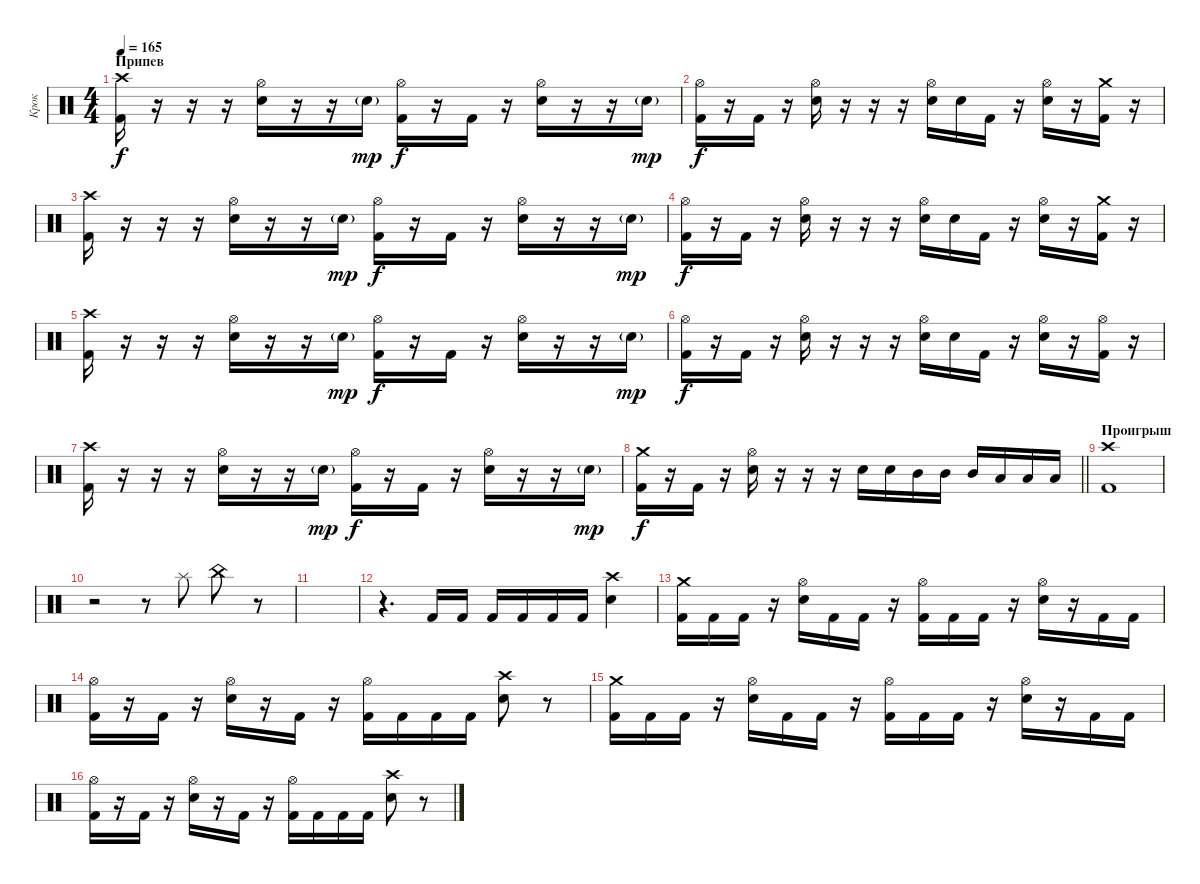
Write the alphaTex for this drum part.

\track ("Крок" "Крок") {instrument percussion}
\staff {score}
\articulation defaults
\ts (4 4)
\section ("" "Припев")
\tempo 165
\clef neutral
\ks c
("Kick (hit) 2" "Crash high (hit)").16{dy f} r.16 r.16 r.16 ("Electric Snare (hit)" "Hi-Hat (open)").16 r.16 r.16 "Electric Snare (hit)"{g}.16{dy mp} ("Kick (hit) 2" "Hi-Hat (open)").16{dy f} r.16 "Kick (hit) 2".16 r.16 ("Electric Snare (hit)" "Hi-Hat (open)").16 r.16 r.16 "Electric Snare (hit)"{g}.16{dy mp} |
("Kick (hit) 2" "Hi-Hat (open)").16{dy f} r.16 "Kick (hit) 2".16 r.16 ("Electric Snare (hit)" "Hi-Hat (open)").16 r.16 r.16 r.16 ("Electric Snare (hit)" "Hi-Hat (open)").16 "Electric Snare (hit)".16 "Kick (hit) 2".16 r.16 ("Electric Snare (hit)" "Hi-Hat (open)").16 r.16 ("Kick (hit) 2" "Crash medium (hit)").16 r.16 |
("Kick (hit) 2" "Crash high (hit)").16 r.16 r.16 r.16 ("Electric Snare (hit)" "Hi-Hat (open)").16 r.16 r.16 "Electric Snare (hit)"{g}.16{dy mp} ("Kick (hit) 2" "Hi-Hat (open)").16{dy f} r.16 "Kick (hit) 2".16 r.16 ("Electric Snare (hit)" "Hi-Hat (open)").16 r.16 r.16 "Electric Snare (hit)"{g}.16{dy mp} |
("Kick (hit) 2" "Hi-Hat (open)").16{dy f} r.16 "Kick (hit) 2".16 r.16 ("Electric Snare (hit)" "Hi-Hat (open)").16 r.16 r.16 r.16 ("Electric Snare (hit)" "Hi-Hat (open)").16 "Electric Snare (hit)".16 "Kick (hit) 2".16 r.16 ("Electric Snare (hit)" "Hi-Hat (open)").16 r.16 ("Kick (hit) 2" "Crash medium (hit)").16 r.16 |
("Kick (hit) 2" "Crash high (hit)").16 r.16 r.16 r.16 ("Electric Snare (hit)" "Hi-Hat (open)").16 r.16 r.16 "Electric Snare (hit)"{g}.16{dy mp} ("Kick (hit) 2" "Hi-Hat (open)").16{dy f} r.16 "Kick (hit) 2".16 r.16 ("Electric Snare (hit)" "Hi-Hat (open)").16 r.16 r.16 "Electric Snare (hit)"{g}.16{dy mp} |
("Kick (hit) 2" "Hi-Hat (open)").16{dy f} r.16 "Kick (hit) 2".16 r.16 ("Electric Snare (hit)" "Hi-Hat (open)").16 r.16 r.16 r.16 ("Electric Snare (hit)" "Hi-Hat (open)").16 "Electric Snare (hit)".16 "Kick (hit) 2".16 r.16 ("Electric Snare (hit)" "Hi-Hat (open)").16 r.16 ("Kick (hit) 2" "Hi-Hat (open)").16 r.16 |
("Kick (hit) 2" "Crash high (hit)").16 r.16 r.16 r.16 ("Electric Snare (hit)" "Hi-Hat (open)").16 r.16 r.16 "Electric Snare (hit)"{g}.16{dy mp} ("Kick (hit) 2" "Hi-Hat (open)").16{dy f} r.16 "Kick (hit) 2".16 r.16 ("Electric Snare (hit)" "Hi-Hat (open)").16 r.16 r.16 "Electric Snare (hit)"{g}.16{dy mp} |
\barLineRight lightlight
("Kick (hit) 2" "Crash medium (hit)").16{dy f} r.16 "Kick (hit) 2".16 r.16 ("Electric Snare (hit)" "Hi-Hat (open)").16 r.16 r.16 r.16 "Electric Snare (hit)".16 "Electric Snare (hit)".16 "Mid Tom (hit)".16 "Mid Tom (hit)".16 "Mid Tom (hit)".16 "Low Tom (hit)".16 "Low Tom (hit)".16 "Low Tom (hit)".16 |
\section ("" "Проигрыш")
("Kick (hit) 2" "Crash high (hit)").1 |
r.2 r.8 "Splash (hit)".8 "China (hit)".8 r.8 |
|
r.4{d} "Kick (hit) 2".16 "Kick (hit) 2".16 "Kick (hit) 2".16 "Kick (hit) 2".16 "Kick (hit) 2".16 "Kick (hit) 2".16 ("Crash high (hit)" "Electric Snare (hit)").4 |
("Kick (hit) 2" "Crash medium (hit)").16 "Kick (hit) 2".16 "Kick (hit) 2".16 r.16 ("Electric Snare (hit)" "Hi-Hat (open)").16 "Kick (hit) 2".16 "Kick (hit) 2".16 r.16 ("Kick (hit) 2" "Hi-Hat (open)").16 "Kick (hit) 2".16 "Kick (hit) 2".16 r.16 ("Electric Snare (hit)" "Hi-Hat (open)").16 r.16 "Kick (hit) 2".16 "Kick (hit) 2".16 |
("Kick (hit) 2" "Hi-Hat (open)").16 r.16 "Kick (hit) 2".16 r.16 ("Electric Snare (hit)" "Hi-Hat (open)").16 r.16 "Kick (hit) 2".16 r.16 ("Kick (hit) 2" "Hi-Hat (open)").16 "Kick (hit) 2".16 "Kick (hit) 2".16 "Kick (hit) 2".16 ("Electric Snare (hit)" "Crash high (hit)").8 r.8 |
("Kick (hit) 2" "Crash medium (hit)").16 "Kick (hit) 2".16 "Kick (hit) 2".16 r.16 ("Electric Snare (hit)" "Hi-Hat (open)").16 "Kick (hit) 2".16 "Kick (hit) 2".16 r.16 ("Kick (hit) 2" "Hi-Hat (open)").16 "Kick (hit) 2".16 "Kick (hit) 2".16 r.16 ("Electric Snare (hit)" "Hi-Hat (open)").16 r.16 "Kick (hit) 2".16 "Kick (hit) 2".16 |
("Kick (hit) 2" "Hi-Hat (open)").16 r.16 "Kick (hit) 2".16 r.16 ("Electric Snare (hit)" "Hi-Hat (open)").16 r.16 "Kick (hit) 2".16 r.16 ("Kick (hit) 2" "Hi-Hat (open)").16 "Kick (hit) 2".16 "Kick (hit) 2".16 "Kick (hit) 2".16 ("Electric Snare (hit)" "Crash high (hit)").8 r.8
